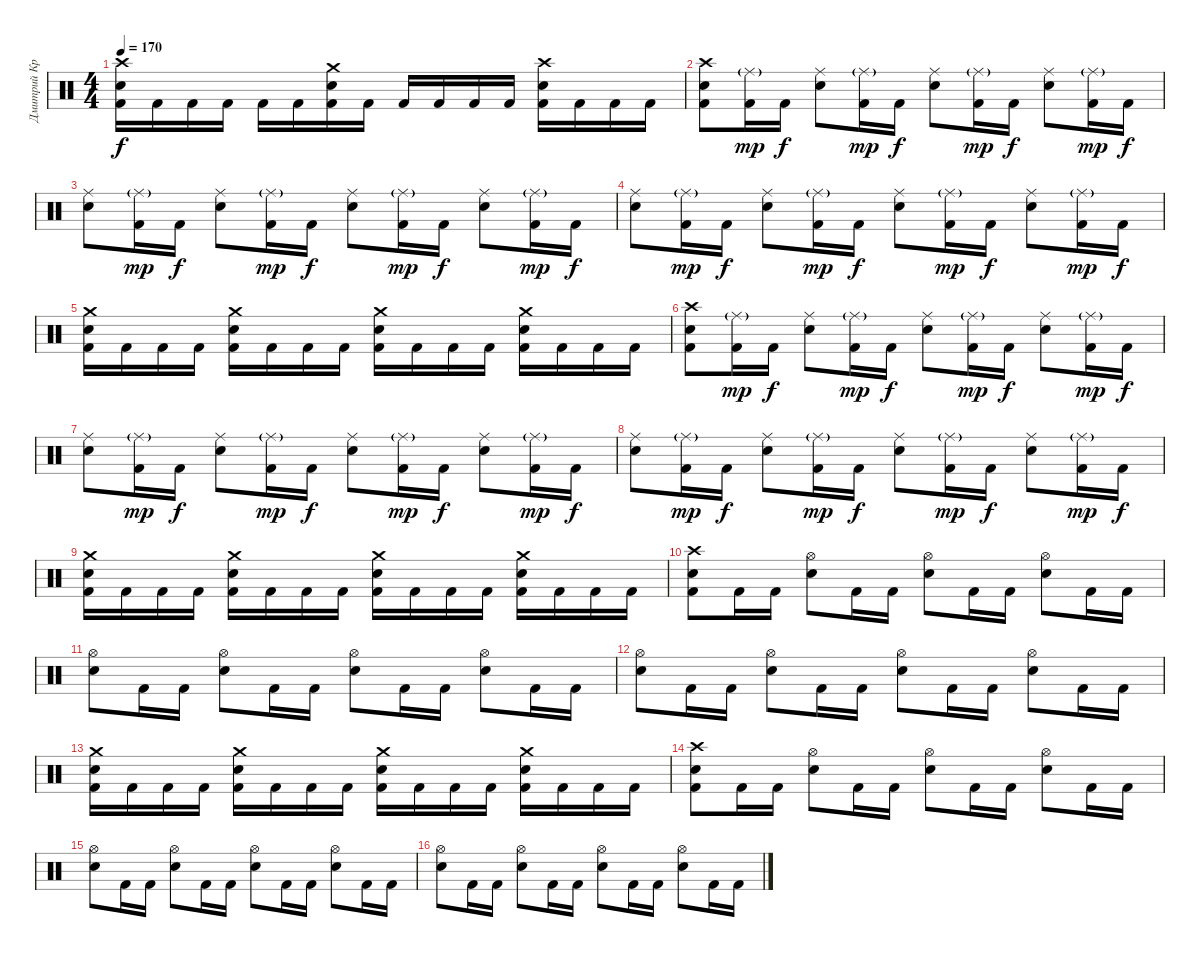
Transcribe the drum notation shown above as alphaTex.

\track ("Дмитрий Кривенков" "Дмитрий Кр") {instrument percussion}
\staff {score}
\articulation defaults
\ts (4 4)
\tempo 170
\clef neutral
\ks c
("Crash high (hit)" "Electric Snare (hit)" "Kick (hit) 2").16{dy f} "Kick (hit) 2".16 "Kick (hit) 2".16 "Kick (hit) 2".16 "Kick (hit) 2".16 "Kick (hit) 2".16 ("Crash medium (hit)" "Electric Snare (hit)" "Kick (hit) 2").16 "Kick (hit) 2".16 "Kick (hit) 2".16 "Kick (hit) 2".16 "Kick (hit) 2".16 "Kick (hit) 2".16 ("Crash high (hit)" "Electric Snare (hit)" "Kick (hit) 2").16 "Kick (hit) 2".16 "Kick (hit) 2".16 "Kick (hit) 2".16 |
("Crash high (hit)" "Electric Snare (hit)" "Kick (hit) 2").8 ("Ride (middle)"{g} "Kick (hit) 2").16{dy mp} "Kick (hit) 2".16{dy f} ("Ride (middle)" "Electric Snare (hit)").8 ("Ride (middle)"{g} "Kick (hit) 2").16{dy mp} "Kick (hit) 2".16{dy f} ("Ride (middle)" "Electric Snare (hit)").8 ("Ride (middle)"{g} "Kick (hit) 2").16{dy mp} "Kick (hit) 2".16{dy f} ("Ride (middle)" "Electric Snare (hit)").8 ("Ride (middle)"{g} "Kick (hit) 2").16{dy mp} "Kick (hit) 2".16{dy f} |
("Ride (middle)" "Electric Snare (hit)").8 ("Ride (middle)"{g} "Kick (hit) 2").16{dy mp} "Kick (hit) 2".16{dy f} ("Ride (middle)" "Electric Snare (hit)").8 ("Ride (middle)"{g} "Kick (hit) 2").16{dy mp} "Kick (hit) 2".16{dy f} ("Ride (middle)" "Electric Snare (hit)").8 ("Ride (middle)"{g} "Kick (hit) 2").16{dy mp} "Kick (hit) 2".16{dy f} ("Ride (middle)" "Electric Snare (hit)").8 ("Ride (middle)"{g} "Kick (hit) 2").16{dy mp} "Kick (hit) 2".16{dy f} |
("Ride (middle)" "Electric Snare (hit)").8 ("Ride (middle)"{g} "Kick (hit) 2").16{dy mp} "Kick (hit) 2".16{dy f} ("Ride (middle)" "Electric Snare (hit)").8 ("Ride (middle)"{g} "Kick (hit) 2").16{dy mp} "Kick (hit) 2".16{dy f} ("Ride (middle)" "Electric Snare (hit)").8 ("Ride (middle)"{g} "Kick (hit) 2").16{dy mp} "Kick (hit) 2".16{dy f} ("Ride (middle)" "Electric Snare (hit)").8 ("Ride (middle)"{g} "Kick (hit) 2").16{dy mp} "Kick (hit) 2".16{dy f} |
("Crash medium (hit)" "Electric Snare (hit)" "Kick (hit) 2").16 "Kick (hit) 2".16 "Kick (hit) 2".16 "Kick (hit) 2".16 ("Crash medium (hit)" "Electric Snare (hit)" "Kick (hit) 2").16 "Kick (hit) 2".16 "Kick (hit) 2".16 "Kick (hit) 2".16 ("Crash medium (hit)" "Electric Snare (hit)" "Kick (hit) 2").16 "Kick (hit) 2".16 "Kick (hit) 2".16 "Kick (hit) 2".16 ("Crash medium (hit)" "Electric Snare (hit)" "Kick (hit) 2").16 "Kick (hit) 2".16 "Kick (hit) 2".16 "Kick (hit) 2".16 |
("Crash high (hit)" "Electric Snare (hit)" "Kick (hit) 2").8 ("Ride (middle)"{g} "Kick (hit) 2").16{dy mp} "Kick (hit) 2".16{dy f} ("Ride (middle)" "Electric Snare (hit)").8 ("Ride (middle)"{g} "Kick (hit) 2").16{dy mp} "Kick (hit) 2".16{dy f} ("Ride (middle)" "Electric Snare (hit)").8 ("Ride (middle)"{g} "Kick (hit) 2").16{dy mp} "Kick (hit) 2".16{dy f} ("Ride (middle)" "Electric Snare (hit)").8 ("Ride (middle)"{g} "Kick (hit) 2").16{dy mp} "Kick (hit) 2".16{dy f} |
("Ride (middle)" "Electric Snare (hit)").8 ("Ride (middle)"{g} "Kick (hit) 2").16{dy mp} "Kick (hit) 2".16{dy f} ("Ride (middle)" "Electric Snare (hit)").8 ("Ride (middle)"{g} "Kick (hit) 2").16{dy mp} "Kick (hit) 2".16{dy f} ("Ride (middle)" "Electric Snare (hit)").8 ("Ride (middle)"{g} "Kick (hit) 2").16{dy mp} "Kick (hit) 2".16{dy f} ("Ride (middle)" "Electric Snare (hit)").8 ("Ride (middle)"{g} "Kick (hit) 2").16{dy mp} "Kick (hit) 2".16{dy f} |
("Ride (middle)" "Electric Snare (hit)").8 ("Ride (middle)"{g} "Kick (hit) 2").16{dy mp} "Kick (hit) 2".16{dy f} ("Ride (middle)" "Electric Snare (hit)").8 ("Ride (middle)"{g} "Kick (hit) 2").16{dy mp} "Kick (hit) 2".16{dy f} ("Ride (middle)" "Electric Snare (hit)").8 ("Ride (middle)"{g} "Kick (hit) 2").16{dy mp} "Kick (hit) 2".16{dy f} ("Ride (middle)" "Electric Snare (hit)").8 ("Ride (middle)"{g} "Kick (hit) 2").16{dy mp} "Kick (hit) 2".16{dy f} |
("Crash medium (hit)" "Electric Snare (hit)" "Kick (hit) 2").16 "Kick (hit) 2".16 "Kick (hit) 2".16 "Kick (hit) 2".16 ("Crash medium (hit)" "Electric Snare (hit)" "Kick (hit) 2").16 "Kick (hit) 2".16 "Kick (hit) 2".16 "Kick (hit) 2".16 ("Crash medium (hit)" "Electric Snare (hit)" "Kick (hit) 2").16 "Kick (hit) 2".16 "Kick (hit) 2".16 "Kick (hit) 2".16 ("Crash medium (hit)" "Electric Snare (hit)" "Kick (hit) 2").16 "Kick (hit) 2".16 "Kick (hit) 2".16 "Kick (hit) 2".16 |
("Crash high (hit)" "Electric Snare (hit)" "Kick (hit) 2").8 "Kick (hit) 2".16 "Kick (hit) 2".16 ("Hi-Hat (open)" "Electric Snare (hit)").8 "Kick (hit) 2".16 "Kick (hit) 2".16 ("Hi-Hat (open)" "Electric Snare (hit)").8 "Kick (hit) 2".16 "Kick (hit) 2".16 ("Hi-Hat (open)" "Electric Snare (hit)").8 "Kick (hit) 2".16 "Kick (hit) 2".16 |
("Hi-Hat (open)" "Electric Snare (hit)").8 "Kick (hit) 2".16 "Kick (hit) 2".16 ("Hi-Hat (open)" "Electric Snare (hit)").8 "Kick (hit) 2".16 "Kick (hit) 2".16 ("Hi-Hat (open)" "Electric Snare (hit)").8 "Kick (hit) 2".16 "Kick (hit) 2".16 ("Hi-Hat (open)" "Electric Snare (hit)").8 "Kick (hit) 2".16 "Kick (hit) 2".16 |
("Hi-Hat (open)" "Electric Snare (hit)").8 "Kick (hit) 2".16 "Kick (hit) 2".16 ("Hi-Hat (open)" "Electric Snare (hit)").8 "Kick (hit) 2".16 "Kick (hit) 2".16 ("Hi-Hat (open)" "Electric Snare (hit)").8 "Kick (hit) 2".16 "Kick (hit) 2".16 ("Hi-Hat (open)" "Electric Snare (hit)").8 "Kick (hit) 2".16 "Kick (hit) 2".16 |
("Crash medium (hit)" "Electric Snare (hit)" "Kick (hit) 2").16 "Kick (hit) 2".16 "Kick (hit) 2".16 "Kick (hit) 2".16 ("Crash medium (hit)" "Electric Snare (hit)" "Kick (hit) 2").16 "Kick (hit) 2".16 "Kick (hit) 2".16 "Kick (hit) 2".16 ("Crash medium (hit)" "Electric Snare (hit)" "Kick (hit) 2").16 "Kick (hit) 2".16 "Kick (hit) 2".16 "Kick (hit) 2".16 ("Crash medium (hit)" "Electric Snare (hit)" "Kick (hit) 2").16 "Kick (hit) 2".16 "Kick (hit) 2".16 "Kick (hit) 2".16 |
("Crash high (hit)" "Electric Snare (hit)" "Kick (hit) 2").8 "Kick (hit) 2".16 "Kick (hit) 2".16 ("Hi-Hat (open)" "Electric Snare (hit)").8 "Kick (hit) 2".16 "Kick (hit) 2".16 ("Hi-Hat (open)" "Electric Snare (hit)").8 "Kick (hit) 2".16 "Kick (hit) 2".16 ("Hi-Hat (open)" "Electric Snare (hit)").8 "Kick (hit) 2".16 "Kick (hit) 2".16 |
("Hi-Hat (open)" "Electric Snare (hit)").8 "Kick (hit) 2".16 "Kick (hit) 2".16 ("Hi-Hat (open)" "Electric Snare (hit)").8 "Kick (hit) 2".16 "Kick (hit) 2".16 ("Hi-Hat (open)" "Electric Snare (hit)").8 "Kick (hit) 2".16 "Kick (hit) 2".16 ("Hi-Hat (open)" "Electric Snare (hit)").8 "Kick (hit) 2".16 "Kick (hit) 2".16 |
("Hi-Hat (open)" "Electric Snare (hit)").8 "Kick (hit) 2".16 "Kick (hit) 2".16 ("Hi-Hat (open)" "Electric Snare (hit)").8 "Kick (hit) 2".16 "Kick (hit) 2".16 ("Hi-Hat (open)" "Electric Snare (hit)").8 "Kick (hit) 2".16 "Kick (hit) 2".16 ("Hi-Hat (open)" "Electric Snare (hit)").8 "Kick (hit) 2".16 "Kick (hit) 2".16
